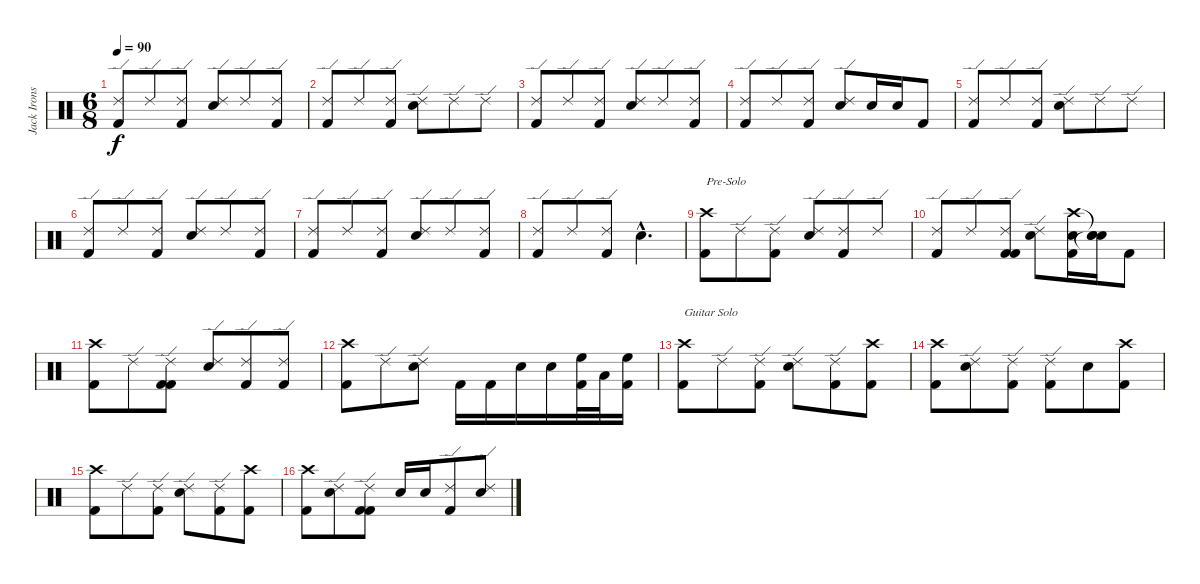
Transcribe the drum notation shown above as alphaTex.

\track ("Jack Irons" "Jack Irons") {instrument percussion}
\staff {score}
\articulation defaults
\ts (6 8)
\tempo 90
\clef neutral
\ks c
("Ride (edge) 2" "Kick (hit) 2").8{dy f} "Ride (edge) 2".8 ("Ride (edge) 2" "Kick (hit) 2").8 ("Ride (edge) 2" "Snare (hit) 2").8 "Ride (edge) 2".8 ("Ride (edge) 2" "Kick (hit) 2").8 |
("Ride (edge) 2" "Kick (hit) 2").8 "Ride (edge) 2".8 ("Ride (edge) 2" "Kick (hit) 2").8 ("Ride (edge) 2" "Snare (hit) 2").8 "Ride (edge) 2".8 "Ride (edge) 2".8 |
("Ride (edge) 2" "Kick (hit) 2").8 "Ride (edge) 2".8 ("Ride (edge) 2" "Kick (hit) 2").8 ("Ride (edge) 2" "Snare (hit) 2").8 "Ride (edge) 2".8 ("Ride (edge) 2" "Kick (hit) 2").8 |
("Ride (edge) 2" "Kick (hit) 2").8 "Ride (edge) 2".8 ("Ride (edge) 2" "Kick (hit) 2").8 ("Ride (edge) 2" "Snare (hit) 2").8 "Snare (hit) 2".16 "Snare (hit) 2".16 "Kick (hit) 2".8 |
("Ride (edge) 2" "Kick (hit) 2").8 "Ride (edge) 2".8 ("Ride (edge) 2" "Kick (hit) 2").8 ("Ride (edge) 2" "Snare (hit) 2").8 "Ride (edge) 2".8 "Ride (edge) 2".8 |
("Ride (edge) 2" "Kick (hit) 2").8 "Ride (edge) 2".8 ("Ride (edge) 2" "Kick (hit) 2").8 ("Ride (edge) 2" "Snare (hit) 2").8 "Ride (edge) 2".8 ("Ride (edge) 2" "Kick (hit) 2").8 |
("Ride (edge) 2" "Kick (hit) 2").8 "Ride (edge) 2".8 ("Ride (edge) 2" "Kick (hit) 2").8 ("Ride (edge) 2" "Snare (hit) 2").8 "Ride (edge) 2".8 ("Ride (edge) 2" "Kick (hit) 2").8 |
("Ride (edge) 2" "Kick (hit) 2").8 "Ride (edge) 2".8 ("Ride (edge) 2" "Kick (hit) 2").8 "Snare (hit) 2"{hac}.4{d} |
("Crash high (hit)" "Kick (hit) 2").8{txt "Pre-Solo"} "Ride (edge) 2".8 ("Ride (edge) 2" "Kick (hit) 2").8 ("Ride (edge) 2" "Snare (hit) 2").8 ("Ride (edge) 2" "Kick (hit) 2").8 "Ride (edge) 2".8 |
("Ride (edge) 2" "Kick (hit) 2").8 "Ride (edge) 2".8 ("Ride (edge) 2" "Kick (hit) 2" "Kick (hit) 2").8 ("Ride (edge) 2" "Snare (hit) 2").8 ("Crash high (hit)" "Snare (hit) 2" "Kick (hit) 2").16 ("Snare (hit)"{t} "Snare (hit) 2" "Snare (hit)"{t}).16 "Kick (hit) 2".8 |
("Crash high (hit)" "Kick (hit) 2").8 "Ride (edge) 2".8 ("Ride (edge) 2" "Kick (hit) 2" "Kick (hit) 2").8 ("Ride (edge) 2" "Snare (hit) 2").8 ("Ride (edge) 2" "Kick (hit) 2").8 ("Ride (edge) 2" "Kick (hit) 2").8 |
("Crash high (hit)" "Kick (hit) 2").8 "Ride (edge) 2".8 ("Ride (edge) 2" "Snare (hit) 2").8 "Kick (hit) 2".16 "Kick (hit) 2".16 "Snare (hit) 2".16 "Snare (hit) 2".16 ("High Floor Tom (hit)" "Kick (hit) 2").32 "Low Tom (hit)".32 ("High Floor Tom (hit)" "Kick (hit) 2").16 |
("Crash high (hit)" "Kick (hit) 2").8{txt "Guitar Solo"} "Ride (edge) 2".8 ("Ride (edge) 2" "Kick (hit) 2").8 ("Ride (edge) 2" "Snare (hit) 2").8 ("Ride (edge) 2" "Kick (hit) 2").8 ("Crash high (hit)" "Kick (hit) 2").8 |
("Crash high (hit)" "Kick (hit) 2").8 ("Ride (edge) 2" "Snare (hit) 2").8 ("Ride (edge) 2" "Kick (hit) 2").8 ("Ride (edge) 2" "Kick (hit) 2").8 "Snare (hit) 2".8 ("Crash high (hit)" "Kick (hit) 2").8 |
("Crash high (hit)" "Kick (hit) 2").8 "Ride (edge) 2".8 ("Ride (edge) 2" "Kick (hit) 2").8 ("Ride (edge) 2" "Snare (hit) 2").8 ("Ride (edge) 2" "Kick (hit) 2").8 ("Crash high (hit)" "Kick (hit) 2").8 |
("Crash high (hit)" "Kick (hit) 2").8 ("Ride (edge) 2" "Snare (hit) 2").8 ("Ride (edge) 2" "Kick (hit) 2" "Kick (hit) 2").8 "Snare (hit) 2".16 "Snare (hit) 2".16 ("Ride (edge) 2" "Kick (hit) 2").8 ("Ride (edge) 2" "Snare (hit) 2").8
